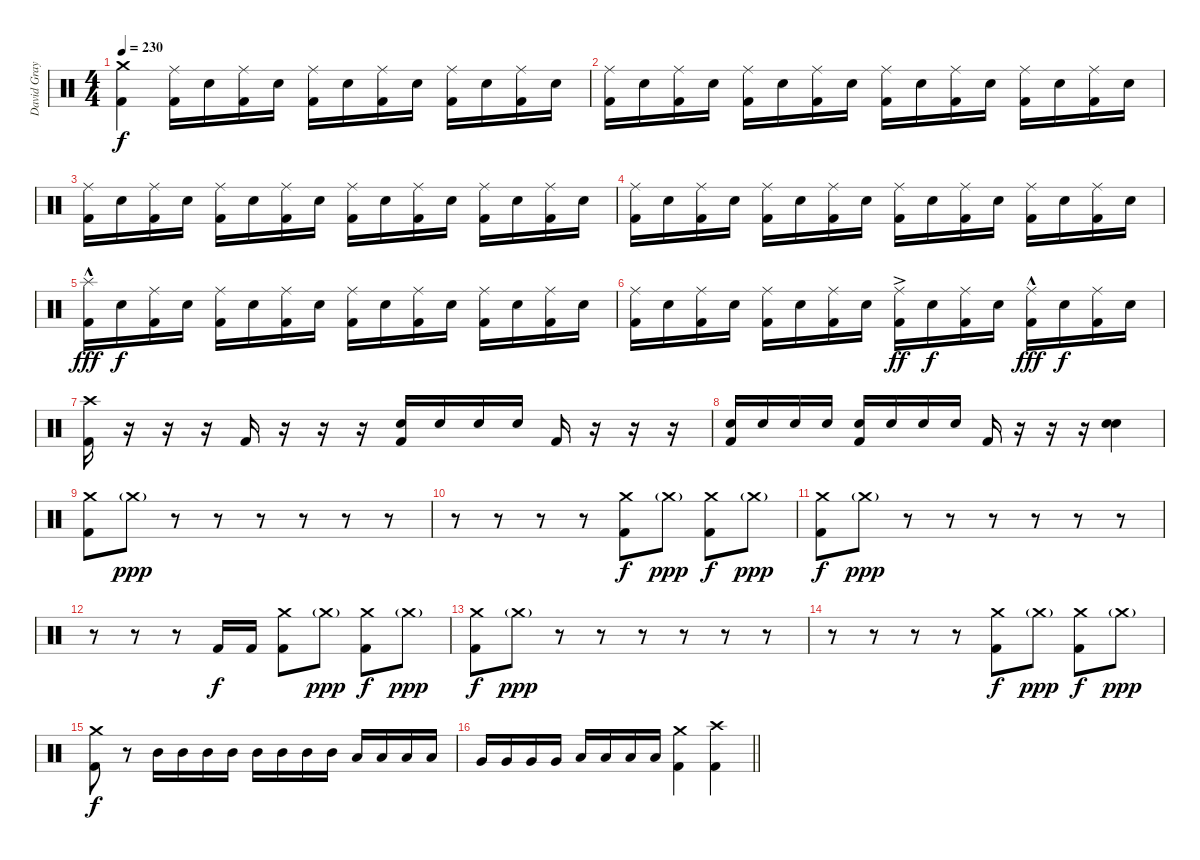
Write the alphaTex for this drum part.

\track ("David Gray" "David Gray") {instrument percussion}
\staff {score}
\articulation defaults
\ts (4 4)
\tempo 230
\clef neutral
\ks c
("Crash medium (hit)" "Kick (hit) 2").4{dy f} ("Ride (middle)" "Kick (hit) 2").16 "Electric Snare (hit)".16 ("Ride (middle)" "Kick (hit) 2").16 "Electric Snare (hit)".16 ("Ride (middle)" "Kick (hit) 2").16 "Electric Snare (hit)".16 ("Ride (middle)" "Kick (hit) 2").16 "Electric Snare (hit)".16 ("Ride (middle)" "Kick (hit) 2").16 "Electric Snare (hit)".16 ("Ride (middle)" "Kick (hit) 2").16 "Electric Snare (hit)".16 |
("Ride (middle)" "Kick (hit) 2").16 "Electric Snare (hit)".16 ("Ride (middle)" "Kick (hit) 2").16 "Electric Snare (hit)".16 ("Ride (middle)" "Kick (hit) 2").16 "Electric Snare (hit)".16 ("Ride (middle)" "Kick (hit) 2").16 "Electric Snare (hit)".16 ("Ride (middle)" "Kick (hit) 2").16 "Electric Snare (hit)".16 ("Ride (middle)" "Kick (hit) 2").16 "Electric Snare (hit)".16 ("Ride (middle)" "Kick (hit) 2").16 "Electric Snare (hit)".16 ("Ride (middle)" "Kick (hit) 2").16 "Electric Snare (hit)".16 |
("Ride (middle)" "Kick (hit) 2").16 "Electric Snare (hit)".16 ("Ride (middle)" "Kick (hit) 2").16 "Electric Snare (hit)".16 ("Ride (middle)" "Kick (hit) 2").16 "Electric Snare (hit)".16 ("Ride (middle)" "Kick (hit) 2").16 "Electric Snare (hit)".16 ("Ride (middle)" "Kick (hit) 2").16 "Electric Snare (hit)".16 ("Ride (middle)" "Kick (hit) 2").16 "Electric Snare (hit)".16 ("Ride (middle)" "Kick (hit) 2").16 "Electric Snare (hit)".16 ("Ride (middle)" "Kick (hit) 2").16 "Electric Snare (hit)".16 |
("Ride (middle)" "Kick (hit) 2").16 "Electric Snare (hit)".16 ("Ride (middle)" "Kick (hit) 2").16 "Electric Snare (hit)".16 ("Ride (middle)" "Kick (hit) 2").16 "Electric Snare (hit)".16 ("Ride (middle)" "Kick (hit) 2").16 "Electric Snare (hit)".16 ("Ride (middle)" "Kick (hit) 2").16 "Electric Snare (hit)".16 ("Ride (middle)" "Kick (hit) 2").16 "Electric Snare (hit)".16 ("Ride (middle)" "Kick (hit) 2").16 "Electric Snare (hit)".16 ("Ride (middle)" "Kick (hit) 2").16 "Electric Snare (hit)".16 |
("Splash (hit)"{hac} "Kick (hit) 2").16{dy fff} "Electric Snare (hit)".16{dy f} ("Ride (middle)" "Kick (hit) 2").16 "Electric Snare (hit)".16 ("Ride (middle)" "Kick (hit) 2").16 "Electric Snare (hit)".16 ("Ride (middle)" "Kick (hit) 2").16 "Electric Snare (hit)".16 ("Ride (middle)" "Kick (hit) 2").16 "Electric Snare (hit)".16 ("Ride (middle)" "Kick (hit) 2").16 "Electric Snare (hit)".16 ("Ride (middle)" "Kick (hit) 2").16 "Electric Snare (hit)".16 ("Ride (middle)" "Kick (hit) 2").16 "Electric Snare (hit)".16 |
("Ride (middle)" "Kick (hit) 2").16 "Electric Snare (hit)".16 ("Ride (middle)" "Kick (hit) 2").16 "Electric Snare (hit)".16 ("Ride (middle)" "Kick (hit) 2").16 "Electric Snare (hit)".16 ("Ride (middle)" "Kick (hit) 2").16 "Electric Snare (hit)".16 ("Ride (middle)"{ac} "Kick (hit) 2").16{dy ff} "Electric Snare (hit)".16{dy f} ("Ride (middle)" "Kick (hit) 2").16 "Electric Snare (hit)".16 ("Ride (middle)"{hac} "Kick (hit) 2").16{dy fff} "Electric Snare (hit)".16{dy f} ("Ride (middle)" "Kick (hit) 2").16 "Electric Snare (hit)".16 |
("Crash high (hit)" "Kick (hit) 2").16 r.16 r.16 r.16 "Kick (hit) 2".16 r.16 r.16 r.16 ("Electric Snare (hit)" "Kick (hit) 2").16 "Electric Snare (hit)".16 "Electric Snare (hit)".16 "Electric Snare (hit)".16 "Kick (hit) 2".16 r.16 r.16 r.16 |
("Electric Snare (hit)" "Kick (hit) 2").16 "Electric Snare (hit)".16 "Electric Snare (hit)".16 "Electric Snare (hit)".16 ("Electric Snare (hit)" "Kick (hit) 2").16 "Electric Snare (hit)".16 "Electric Snare (hit)".16 "Electric Snare (hit)".16 "Kick (hit) 2".16 r.16 r.16 r.16 ("Electric Snare (hit)" "Electric Snare (hit)").4{bd 240} |
("Crash medium (hit)" "Kick (hit) 2").8 "Crash medium (hit)"{g}.8{dy ppp} r.8 r.8 r.8 r.8 r.8 r.8 |
r.8 r.8 r.8 r.8 ("Crash medium (hit)" "Kick (hit) 2").8{dy f} "Crash medium (hit)"{g}.8{dy ppp} ("Crash medium (hit)" "Kick (hit) 2").8{dy f} "Crash medium (hit)"{g}.8{dy ppp} |
("Crash medium (hit)" "Kick (hit) 2").8{dy f} "Crash medium (hit)"{g}.8{dy ppp} r.8 r.8 r.8 r.8 r.8 r.8 |
r.8 r.8 r.8 "Kick (hit) 2".16{dy f} "Kick (hit) 2".16 ("Crash medium (hit)" "Kick (hit) 2").8 "Crash medium (hit)"{g}.8{dy ppp} ("Crash medium (hit)" "Kick (hit) 2").8{dy f} "Crash medium (hit)"{g}.8{dy ppp} |
("Crash medium (hit)" "Kick (hit) 2").8{dy f} "Crash medium (hit)"{g}.8{dy ppp} r.8 r.8 r.8 r.8 r.8 r.8 |
r.8 r.8 r.8 r.8 ("Crash medium (hit)" "Kick (hit) 2").8{dy f} "Crash medium (hit)"{g}.8{dy ppp} ("Crash medium (hit)" "Kick (hit) 2").8{dy f} "Crash medium (hit)"{g}.8{dy ppp} |
("Crash medium (hit)" "Kick (hit) 2").8{dy f} r.8 "Mid Tom (hit)".16 "Mid Tom (hit)".16 "Mid Tom (hit)".16 "Mid Tom (hit)".16 "Mid Tom (hit)".16 "Mid Tom (hit)".16 "Mid Tom (hit)".16 "Mid Tom (hit)".16 "Low Tom (hit)".16 "Low Tom (hit)".16 "Low Tom (hit)".16 "Low Tom (hit)".16 |
\barLineRight lightlight "Very Low Tom (hit)".16 "Very Low Tom (hit)".16 "Very Low Tom (hit)".16 "Very Low Tom (hit)".16 "Low Floor Tom (hit)".16 "Low Floor Tom (hit)".16 "Low Floor Tom (hit)".16 "Low Floor Tom (hit)".16
("Crash medium (hit)" "Kick (hit) 2").4 ("Crash high (hit)" "Kick (hit) 2").4
